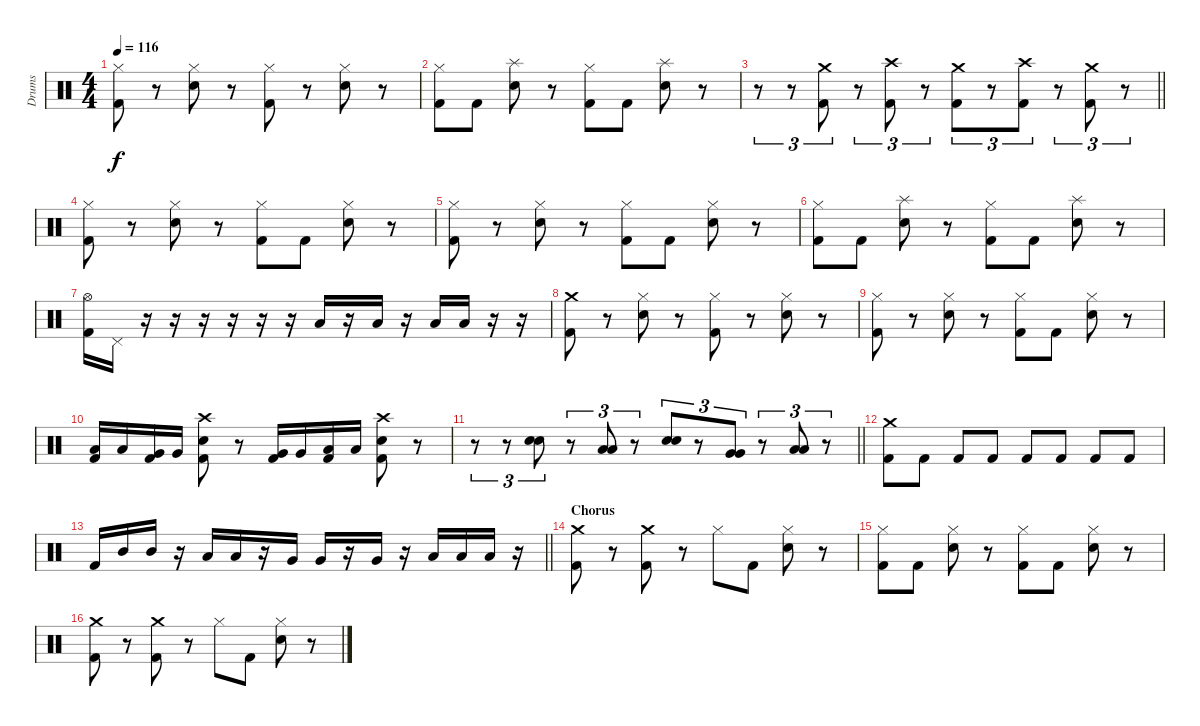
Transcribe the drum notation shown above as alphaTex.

\track ("Drums" "Drums") {instrument percussion}
\staff {score}
\articulation defaults
\ts (4 4)
\tempo 116
\clef neutral
\ks c
("Hi-Hat (closed)" "Kick (hit) 2").8{dy f} r.8 ("Hi-Hat (closed)" "Snare (hit) 2").8 r.8 ("Hi-Hat (closed)" "Kick (hit) 2").8 r.8 ("Hi-Hat (closed)" "Snare (hit) 2").8 r.8 |
("Hi-Hat (closed)" "Kick (hit) 2").8 "Kick (hit) 2".8 ("Splash (hit)" "Snare (hit) 2").8 r.8 ("Hi-Hat (closed)" "Kick (hit) 2").8 "Kick (hit) 2".8 ("Splash (hit)" "Snare (hit) 2").8 r.8 |
\barLineRight lightlight
r.8{tu (3 2)} r.8{tu (3 2)} ("Crash medium (hit)" "Kick (hit) 2").8{tu (3 2)} r.8{tu (3 2)} ("Crash high (hit)" "Kick (hit) 2").8{tu (3 2)} r.8{tu (3 2)} ("Crash medium (hit)" "Kick (hit) 2").8{tu (3 2)} r.8{tu (3 2)} ("Crash high (hit)" "Kick (hit) 2").8{tu (3 2)} r.8{tu (3 2)} ("Crash medium (hit)" "Kick (hit) 2").8{tu (3 2)} r.8{tu (3 2)} |
("Hi-Hat (closed)" "Kick (hit) 2").8 r.8 ("Hi-Hat (closed)" "Snare (hit) 2").8 r.8 ("Hi-Hat (closed)" "Kick (hit) 2").8 "Kick (hit) 2".8 ("Hi-Hat (closed)" "Snare (hit) 2").8 r.8 |
("Hi-Hat (closed)" "Kick (hit) 2").8 r.8 ("Hi-Hat (closed)" "Snare (hit) 2").8 r.8 ("Hi-Hat (closed)" "Kick (hit) 2").8 "Kick (hit) 2".8 ("Hi-Hat (closed)" "Snare (hit) 2").8 r.8 |
("Hi-Hat (closed)" "Kick (hit) 2").8 "Kick (hit) 2".8 ("Splash (hit)" "Snare (hit) 2").8 r.8 ("Hi-Hat (closed)" "Kick (hit) 2").8 "Kick (hit) 2".8 ("Splash (hit)" "Snare (hit) 2").8 r.8 |
("Hi-Hat (open)" "Kick (hit) 2").16 "Pedal Hi-Hat (hit)".16 r.16 r.16 r.16 r.16 r.16 r.16 "Low Tom (hit)".16 r.16 "Low Tom (hit)".16 r.16 "Low Floor Tom (hit)".16 "Low Floor Tom (hit)".16 r.16 r.16 |
("Crash medium (hit)" "Kick (hit) 2").8 r.8 ("Hi-Hat (closed)" "Snare (hit) 2").8 r.8 ("Hi-Hat (closed)" "Kick (hit) 2").8 r.8 ("Hi-Hat (closed)" "Snare (hit) 2").8 r.8 |
("Hi-Hat (closed)" "Kick (hit) 2").8 r.8 ("Hi-Hat (closed)" "Snare (hit) 2").8 r.8 ("Hi-Hat (closed)" "Kick (hit) 2").8 "Kick (hit) 2".8 ("Hi-Hat (closed)" "Snare (hit) 2").8 r.8 |
("Low Tom (hit)" "Kick (hit) 2").16 "Low Tom (hit)".16 ("Very Low Tom (hit)" "Kick (hit) 2").16 "Very Low Tom (hit)".16 ("Crash high (hit)" "Snare (hit) 2" "Kick (hit) 2").8 r.8 ("Very Low Tom (hit)" "Kick (hit) 2").16 "Very Low Tom (hit)".16 ("Low Floor Tom (hit)" "Kick (hit) 2").16 "Low Floor Tom (hit)".16 ("Crash high (hit)" "Snare (hit) 2" "Kick (hit) 2").8 r.8 |
\barLineRight lightlight
r.8{tu (3 2)} r.8{tu (3 2)} ("Snare (hit) 2" "Snare (hit) 2").8{tu (3 2)} r.8{tu (3 2)} ("Low Tom (hit)" "Low Tom (hit)").8{tu (3 2)} r.8{tu (3 2)} ("Snare (hit) 2" "Snare (hit) 2").8{tu (3 2)} r.8{tu (3 2)} ("Very Low Tom (hit)" "Very Low Tom (hit)").8{tu (3 2)} r.8{tu (3 2)} ("Low Floor Tom (hit)" "Low Floor Tom (hit)").8{tu (3 2)} r.8{tu (3 2)} |
("Crash medium (hit)" "Kick (hit) 2").8 "Kick (hit) 2".8 "Kick (hit) 2".8 "Kick (hit) 2".8 "Kick (hit) 2".8 "Kick (hit) 2".8 "Kick (hit) 2".8 "Kick (hit) 2".8 |
\barLineRight lightlight "Kick (hit) 2".16 "Mid Tom (hit)".16 "Mid Tom (hit)".16
r.16 "Low Tom (hit)".16 "Low Tom (hit)".16 r.16 "Very Low Tom (hit)".16 "Very Low Tom (hit)".16 r.16 "Very Low Tom (hit)".16 r.16 "Low Floor Tom (hit)".16 "Low Floor Tom (hit)".16 "Low Floor Tom (hit)".16 r.16 |
\section ("" "Chorus")
("Crash medium (hit)" "Kick (hit) 2").8 r.8 ("Crash medium (hit)" "Kick (hit) 2").8 r.8 "Hi-Hat (closed)".8 "Kick (hit) 2".8 ("Hi-Hat (closed)" "Snare (hit) 2").8 r.8 |
("Hi-Hat (closed)" "Kick (hit) 2").8 "Kick (hit) 2".8 ("Hi-Hat (closed)" "Snare (hit) 2").8 r.8 ("Hi-Hat (closed)" "Kick (hit) 2").8 "Kick (hit) 2".8 ("Hi-Hat (closed)" "Snare (hit) 2").8 r.8 |
("Crash medium (hit)" "Kick (hit) 2").8 r.8 ("Crash medium (hit)" "Kick (hit) 2").8 r.8 "Hi-Hat (closed)".8 "Kick (hit) 2".8 ("Hi-Hat (closed)" "Snare (hit) 2").8 r.8
